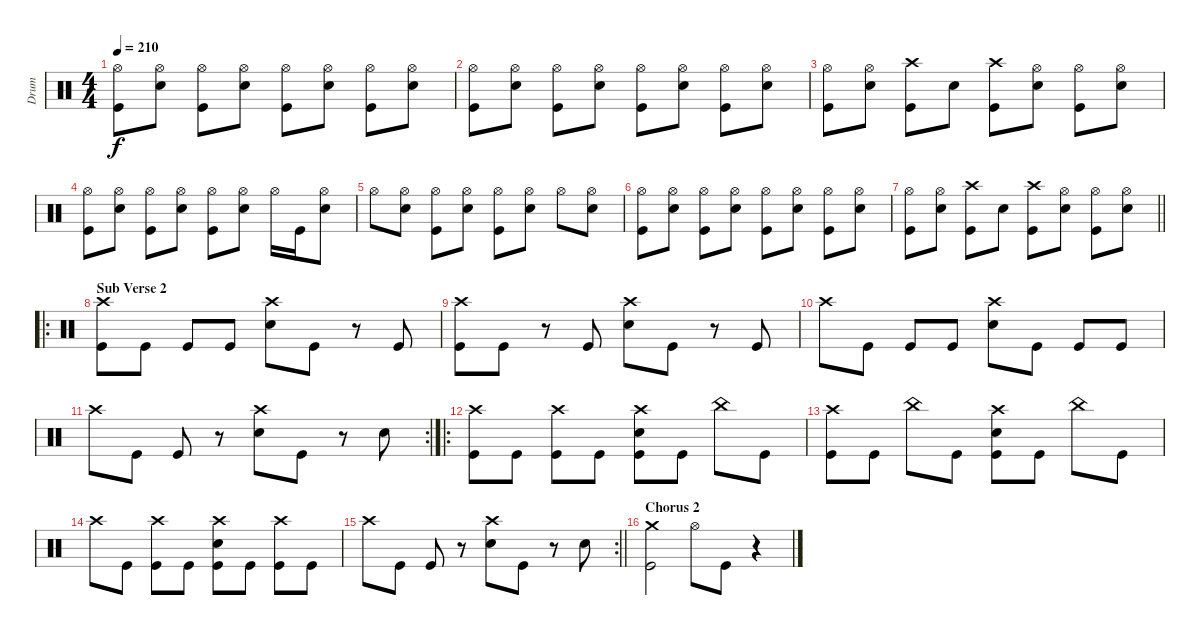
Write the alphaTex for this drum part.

\track ("Drum" "Drum") {instrument percussion}
\staff {score}
\articulation defaults
\ts (4 4)
\tempo 210
\clef neutral
\ks c
("Hi-Hat (open)" "Kick (hit)").8{dy f} ("Hi-Hat (open)" "Snare (hit) 2").8 ("Hi-Hat (open)" "Kick (hit)").8 ("Hi-Hat (open)" "Snare (hit) 2").8 ("Hi-Hat (open)" "Kick (hit)").8 ("Hi-Hat (open)" "Snare (hit) 2").8 ("Hi-Hat (open)" "Kick (hit)").8 ("Hi-Hat (open)" "Snare (hit) 2").8 |
("Hi-Hat (open)" "Kick (hit)").8 ("Hi-Hat (open)" "Snare (hit) 2").8 ("Hi-Hat (open)" "Kick (hit)").8 ("Hi-Hat (open)" "Snare (hit) 2").8 ("Hi-Hat (open)" "Kick (hit)").8 ("Hi-Hat (open)" "Snare (hit) 2").8 ("Hi-Hat (open)" "Kick (hit)").8 ("Hi-Hat (open)" "Snare (hit) 2").8 |
("Hi-Hat (open)" "Kick (hit)").8 ("Hi-Hat (open)" "Snare (hit) 2").8 ("Crash high (hit)" "Kick (hit)").8 "Snare (hit) 2".8 ("Crash high (hit)" "Kick (hit)").8 ("Hi-Hat (open)" "Snare (hit) 2").8 ("Hi-Hat (open)" "Kick (hit)").8 ("Hi-Hat (open)" "Snare (hit) 2").8 |
("Hi-Hat (open)" "Kick (hit)").8 ("Hi-Hat (open)" "Snare (hit) 2").8 ("Hi-Hat (open)" "Kick (hit)").8 ("Hi-Hat (open)" "Snare (hit) 2").8 ("Hi-Hat (open)" "Kick (hit)").8 ("Hi-Hat (open)" "Snare (hit) 2").8 "Hi-Hat (open)".16 "Kick (hit)".16 ("Hi-Hat (open)" "Snare (hit) 2").8 |
"Hi-Hat (open)".8 ("Hi-Hat (open)" "Snare (hit) 2").8 ("Hi-Hat (open)" "Kick (hit)").8 ("Hi-Hat (open)" "Snare (hit) 2").8 ("Hi-Hat (open)" "Kick (hit)").8 ("Hi-Hat (open)" "Snare (hit) 2").8 "Hi-Hat (open)".8 ("Hi-Hat (open)" "Snare (hit) 2").8 |
("Hi-Hat (open)" "Kick (hit)").8 ("Hi-Hat (open)" "Snare (hit) 2").8 ("Hi-Hat (open)" "Kick (hit)").8 ("Hi-Hat (open)" "Snare (hit) 2").8 ("Hi-Hat (open)" "Kick (hit)").8 ("Hi-Hat (open)" "Snare (hit) 2").8 ("Hi-Hat (open)" "Kick (hit)").8 ("Hi-Hat (open)" "Snare (hit) 2").8 |
\barLineRight lightlight
("Hi-Hat (open)" "Kick (hit)").8 ("Hi-Hat (open)" "Snare (hit) 2").8 ("Crash high (hit)" "Kick (hit)").8 "Snare (hit) 2".8 ("Crash high (hit)" "Kick (hit)").8 ("Hi-Hat (open)" "Snare (hit) 2").8 ("Hi-Hat (open)" "Kick (hit)").8 ("Hi-Hat (open)" "Snare (hit) 2").8 |
\ro
\section ("" "Sub Verse 2")
("Crash high (hit)" "Kick (hit)").8 "Kick (hit)".8 "Kick (hit)".8 "Kick (hit)".8 ("Crash high (hit)" "Snare (hit) 2").8 "Kick (hit)".8 r.8 "Kick (hit)".8 |
("Crash high (hit)" "Kick (hit)").8 "Kick (hit)".8 r.8 "Kick (hit)".8 ("Crash high (hit)" "Snare (hit) 2").8 "Kick (hit)".8 r.8 "Kick (hit)".8 |
"Crash high (hit)".8 "Kick (hit)".8 "Kick (hit)".8 "Kick (hit)".8 ("Crash high (hit)" "Snare (hit) 2").8 "Kick (hit)".8 "Kick (hit)".8 "Kick (hit)".8 |
\rc 2 "Crash high (hit)".8 "Kick (hit)".8 "Kick (hit)".8
r.8 ("Crash high (hit)" "Snare (hit) 2").8 "Kick (hit)".8 r.8 "Snare (hit) 2".8 |
\ro
("Crash high (hit)" "Kick (hit)").8 "Kick (hit)".8 ("Crash high (hit)" "Kick (hit)").8 "Kick (hit)".8 ("Crash high (hit)" "Snare (hit) 2" "Kick (hit)").8 "Kick (hit)".8 "China (hit)".8 "Kick (hit)".8 |
("Crash high (hit)" "Kick (hit)").8 "Kick (hit)".8 "China (hit)".8 "Kick (hit)".8 ("Crash high (hit)" "Snare (hit) 2" "Kick (hit)").8 "Kick (hit)".8 "China (hit)".8 "Kick (hit)".8 |
"Crash high (hit)".8 "Kick (hit)".8 ("Crash high (hit)" "Kick (hit)").8 "Kick (hit)".8 ("Crash high (hit)" "Snare (hit) 2" "Kick (hit)").8 "Kick (hit)".8 ("Crash high (hit)" "Kick (hit)").8 "Kick (hit)".8 |
\rc 2
\barLineRight lightlight "Crash high (hit)".8 "Kick (hit)".8 "Kick (hit)".8
r.8 ("Crash high (hit)" "Snare (hit) 2").8 "Kick (hit)".8 r.8 "Snare (hit) 2".8 |
\section ("" "Chorus 2")
("Crash medium (hit)" "Kick (hit)").2 "Hi-Hat (open)".8 "Kick (hit)".8 r.4
